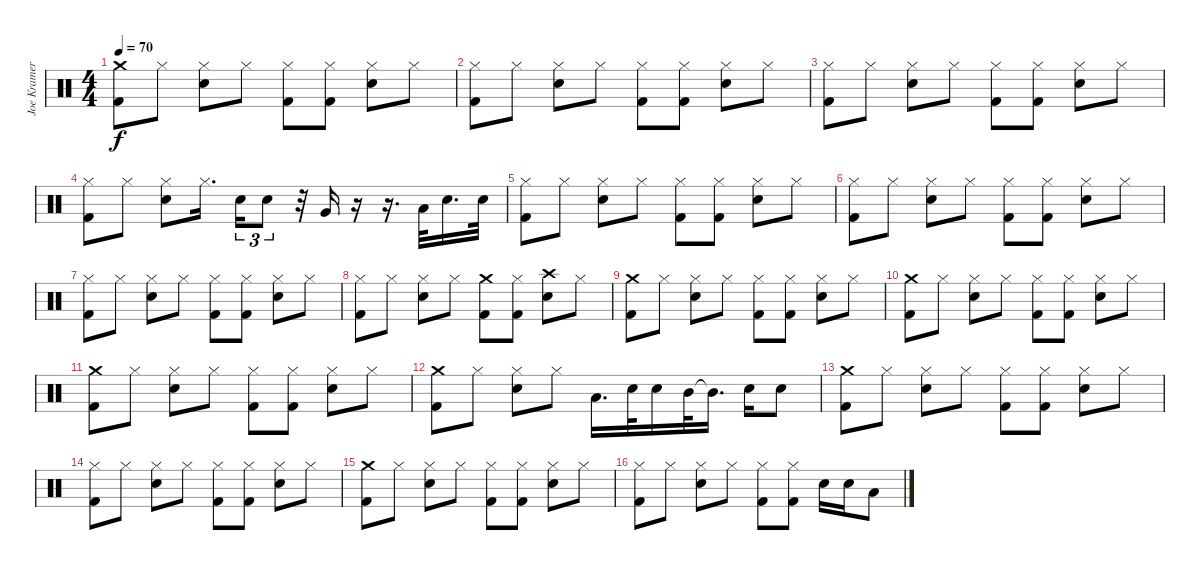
\track ("Joe Kramer" "Joe Kramer") {instrument percussion}
\staff {score}
\articulation defaults
\ts (4 4)
\tempo 70
\clef neutral
\ks c
("Crash medium (hit)" "Kick (hit) 2").8{dy f} "Hi-Hat (closed)".8 ("Hi-Hat (closed)" "Snare (hit) 2").8 "Hi-Hat (closed)".8 ("Hi-Hat (closed)" "Kick (hit) 2").8 ("Hi-Hat (closed)" "Kick (hit) 2").8 ("Hi-Hat (closed)" "Snare (hit) 2").8 "Hi-Hat (closed)".8 |
("Hi-Hat (closed)" "Kick (hit) 2").8 "Hi-Hat (closed)".8 ("Hi-Hat (closed)" "Snare (hit) 2").8 "Hi-Hat (closed)".8 ("Hi-Hat (closed)" "Kick (hit) 2").8 ("Hi-Hat (closed)" "Kick (hit) 2").8 ("Hi-Hat (closed)" "Snare (hit) 2").8 "Hi-Hat (closed)".8 |
("Hi-Hat (closed)" "Kick (hit) 2").8 "Hi-Hat (closed)".8 ("Hi-Hat (closed)" "Snare (hit) 2").8 "Hi-Hat (closed)".8 ("Hi-Hat (closed)" "Kick (hit) 2").8 ("Hi-Hat (closed)" "Kick (hit) 2").8 ("Hi-Hat (closed)" "Snare (hit) 2").8 "Hi-Hat (closed)".8 |
("Hi-Hat (closed)" "Kick (hit) 2").8 "Hi-Hat (closed)".8 ("Hi-Hat (closed)" "Snare (hit) 2").8 "Hi-Hat (closed)".16{d} "Snare (hit) 2".16{tu (3 2)} "Snare (hit) 2".8{tu (3 2)} r.32 "Very Low Tom (hit)".16 r.16 r.16{d} "Low Floor Tom (hit)".32 "Snare (hit) 2".16{d} "Snare (hit) 2".32 |
("Hi-Hat (closed)" "Kick (hit) 2").8 "Hi-Hat (closed)".8 ("Hi-Hat (closed)" "Snare (hit) 2").8 "Hi-Hat (closed)".8 ("Hi-Hat (closed)" "Kick (hit) 2").8 ("Hi-Hat (closed)" "Kick (hit) 2").8 ("Hi-Hat (closed)" "Snare (hit) 2").8 "Hi-Hat (closed)".8 |
("Hi-Hat (closed)" "Kick (hit) 2").8 "Hi-Hat (closed)".8 ("Hi-Hat (closed)" "Snare (hit) 2").8 "Hi-Hat (closed)".8 ("Hi-Hat (closed)" "Kick (hit) 2").8 ("Hi-Hat (closed)" "Kick (hit) 2").8 ("Hi-Hat (closed)" "Snare (hit) 2").8 "Hi-Hat (closed)".8 |
("Hi-Hat (closed)" "Kick (hit) 2").8 "Hi-Hat (closed)".8 ("Hi-Hat (closed)" "Snare (hit) 2").8 "Hi-Hat (closed)".8 ("Hi-Hat (closed)" "Kick (hit) 2").8 ("Hi-Hat (closed)" "Kick (hit) 2").8 ("Hi-Hat (closed)" "Snare (hit) 2").8 "Hi-Hat (closed)".8 |
("Hi-Hat (closed)" "Kick (hit) 2").8 "Hi-Hat (closed)".8 ("Hi-Hat (closed)" "Snare (hit) 2").8 "Hi-Hat (closed)".8 ("Crash medium (hit)" "Kick (hit) 2").8 ("Hi-Hat (closed)" "Kick (hit) 2").8 ("Crash high (hit)" "Snare (hit) 2").8 "Hi-Hat (closed)".8 |
("Crash medium (hit)" "Kick (hit) 2").8 "Hi-Hat (closed)".8 ("Hi-Hat (closed)" "Snare (hit) 2").8 "Hi-Hat (closed)".8 ("Hi-Hat (closed)" "Kick (hit) 2").8 ("Hi-Hat (closed)" "Kick (hit) 2").8 ("Hi-Hat (closed)" "Snare (hit) 2").8 "Hi-Hat (closed)".8 |
("Crash medium (hit)" "Kick (hit) 2").8 "Hi-Hat (closed)".8 ("Hi-Hat (closed)" "Snare (hit) 2").8 "Hi-Hat (closed)".8 ("Hi-Hat (closed)" "Kick (hit) 2").8 ("Hi-Hat (closed)" "Kick (hit) 2").8 ("Hi-Hat (closed)" "Snare (hit) 2").8 "Hi-Hat (closed)".8 |
("Crash medium (hit)" "Kick (hit) 2").8 "Hi-Hat (closed)".8 ("Hi-Hat (closed)" "Snare (hit) 2").8 "Hi-Hat (closed)".8 ("Hi-Hat (closed)" "Kick (hit) 2").8 ("Hi-Hat (closed)" "Kick (hit) 2").8 ("Hi-Hat (closed)" "Snare (hit) 2").8 "Hi-Hat (closed)".8 |
("Crash medium (hit)" "Kick (hit) 2").8 "Hi-Hat (closed)".8 ("Hi-Hat (closed)" "Snare (hit) 2").8 "Hi-Hat (closed)".8 "Low Tom (hit)".16{d} "Snare (hit) 2".32 "Snare (hit) 2".16 "Mid Tom (hit)".32 "Mid Tom (hit)"{t}.16{d} "Snare (hit) 2".16 "Snare (hit) 2".8 |
("Crash medium (hit)" "Kick (hit) 2").8 "Hi-Hat (closed)".8 ("Hi-Hat (closed)" "Snare (hit) 2").8 "Hi-Hat (closed)".8 ("Hi-Hat (closed)" "Kick (hit) 2").8 ("Hi-Hat (closed)" "Kick (hit) 2").8 ("Hi-Hat (closed)" "Snare (hit) 2").8 "Hi-Hat (closed)".8 |
("Hi-Hat (closed)" "Kick (hit) 2").8 "Hi-Hat (closed)".8 ("Hi-Hat (closed)" "Snare (hit) 2").8 "Hi-Hat (closed)".8 ("Hi-Hat (closed)" "Kick (hit) 2").8 ("Hi-Hat (closed)" "Kick (hit) 2").8 ("Hi-Hat (closed)" "Snare (hit) 2").8 "Hi-Hat (closed)".8 |
("Crash medium (hit)" "Kick (hit) 2").8 "Hi-Hat (closed)".8 ("Hi-Hat (closed)" "Snare (hit) 2").8 "Hi-Hat (closed)".8 ("Hi-Hat (closed)" "Kick (hit) 2").8 ("Hi-Hat (closed)" "Kick (hit) 2").8 ("Hi-Hat (closed)" "Snare (hit) 2").8 "Hi-Hat (closed)".8 |
("Hi-Hat (closed)" "Kick (hit) 2").8 "Hi-Hat (closed)".8 ("Hi-Hat (closed)" "Snare (hit) 2").8 "Hi-Hat (closed)".8 ("Hi-Hat (closed)" "Kick (hit) 2").8 ("Hi-Hat (closed)" "Kick (hit) 2").8 "Snare (hit) 2".16 "Snare (hit) 2".16 "Low Tom (hit)".8
